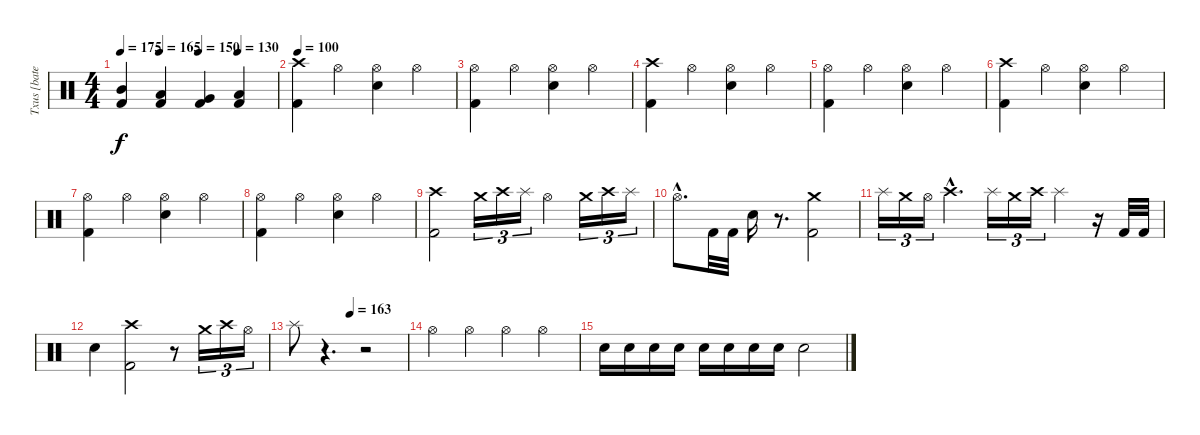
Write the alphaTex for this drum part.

\track ("Txus [bateria]" "Txus [bate") {instrument percussion}
\staff {score}
\articulation defaults
\ts (4 4)
\tempo 175
\tempo (165 0.25)
\tempo (150 0.5)
\tempo (130 0.75)
\clef neutral
\ks c
("Mid Tom (hit)" "Kick (hit) 2").4{dy f} ("Low Tom (hit)" "Kick (hit) 2").4 ("Very Low Tom (hit)" "Kick (hit) 2").4 ("Low Floor Tom (hit)" "Kick (hit) 2").4 |
\tempo 100
("Crash high (hit)" "Kick (hit) 2").4 "Hi-Hat (open)".4 ("Hi-Hat (open)" "Snare (hit) 2").4 "Hi-Hat (open)".4 |
("Hi-Hat (open)" "Kick (hit) 2").4 "Hi-Hat (open)".4 ("Hi-Hat (open)" "Snare (hit) 2").4 "Hi-Hat (open)".4 |
("Crash high (hit)" "Kick (hit) 2").4 "Hi-Hat (open)".4 ("Hi-Hat (open)" "Snare (hit) 2").4 "Hi-Hat (open)".4 |
("Hi-Hat (open)" "Kick (hit) 2").4 "Hi-Hat (open)".4 ("Hi-Hat (open)" "Snare (hit) 2").4 "Hi-Hat (open)".4 |
("Crash high (hit)" "Kick (hit) 2").4 "Hi-Hat (open)".4 ("Hi-Hat (open)" "Snare (hit) 2").4 "Hi-Hat (open)".4 |
("Hi-Hat (open)" "Kick (hit) 2").4 "Hi-Hat (open)".4 ("Hi-Hat (open)" "Snare (hit) 2").4 "Hi-Hat (open)".4 |
("Hi-Hat (open)" "Kick (hit) 2").4 "Hi-Hat (open)".4 ("Hi-Hat (open)" "Snare (hit) 2").4 "Hi-Hat (open)".4 |
("Crash high (hit)" "Kick (hit) 2").2 "Crash medium (hit)".16{tu (3 2)} "Crash high (hit)".16{tu (3 2)} "Splash (hit)".16{tu (3 2)} "Hi-Hat (open)".4 "Crash medium (hit)".16{tu (3 2)} "Crash high (hit)".16{tu (3 2)} "Splash (hit)".16{tu (3 2)} |
"Hi-Hat (open)"{hac}.8{d} "Kick (hit) 2".32 "Kick (hit) 2".32 "Snare (hit) 2".16 r.8{d} ("Crash medium (hit)" "Kick (hit) 2").2 |
"Splash (hit)".16{tu (3 2)} "Crash medium (hit)".16{tu (3 2)} "Hi-Hat (open)".16{tu (3 2)} "Crash high (hit)"{hac}.4{d} "Splash (hit)".16{tu (3 2)} "Crash medium (hit)".16{tu (3 2)} "Crash high (hit)".16{tu (3 2)} "Splash (hit)".4 r.16 "Kick (hit) 2".32 "Kick (hit) 2".32 |
"Snare (hit) 2".4 ("Crash high (hit)" "Kick (hit) 2").2 r.8 "Crash medium (hit)".16{tu (3 2)} "Crash high (hit)".16{tu (3 2)} "Hi-Hat (open)".16{tu (3 2)} |
\tempo (163 0.5)
"Splash (hit)".8 r.4{d} r.2 |
"Hi-Hat (open)".4 "Hi-Hat (open)".4 "Hi-Hat (open)".4 "Hi-Hat (open)".4 |
"Snare (hit) 2".16 "Snare (hit) 2".16 "Snare (hit) 2".16 "Snare (hit) 2".16 "Snare (hit) 2".16 "Snare (hit) 2".16 "Snare (hit) 2".16 "Snare (hit) 2".16 "Snare (hit) 2".2
